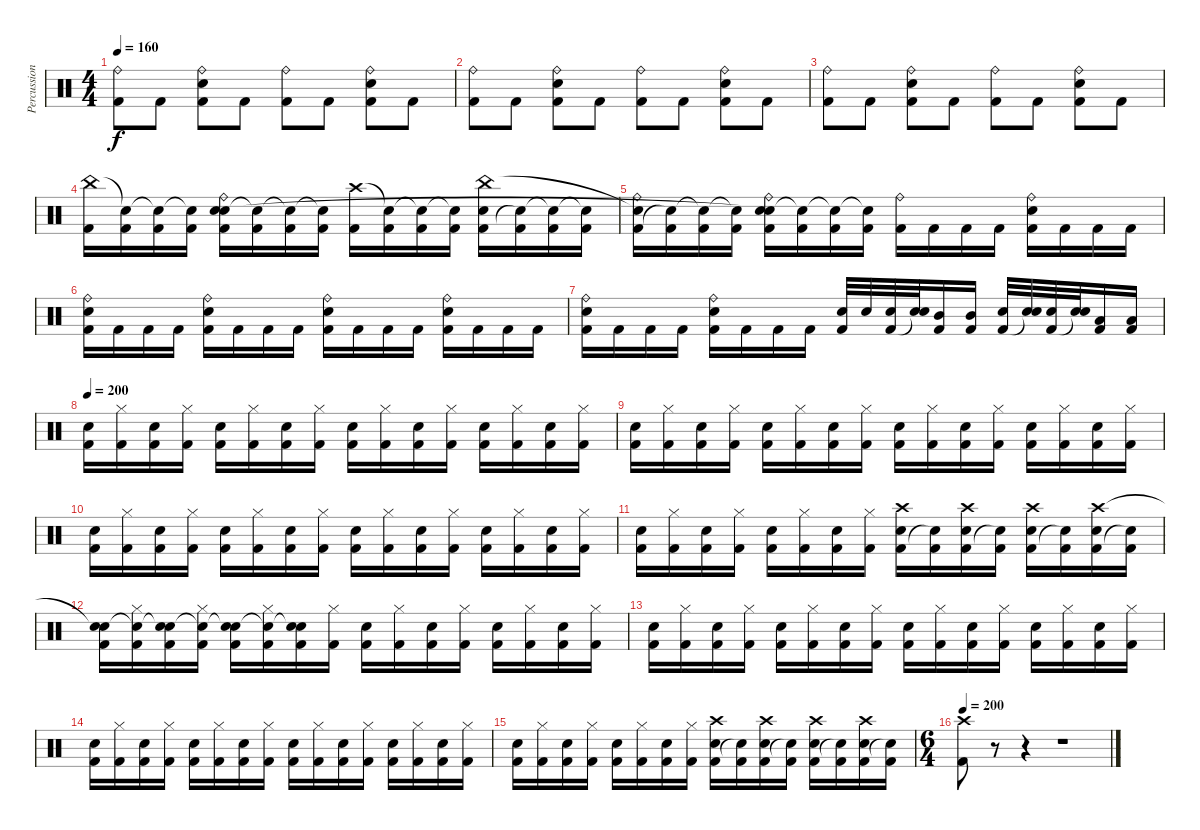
\track ("Percussion" "Percussion") {instrument percussion}
\staff {score}
\articulation defaults
\ts (4 4)
\tempo 160
\clef neutral
\ks c
("Ride (bell)" "Kick (hit) 2").8{dy f} "Kick (hit) 2".8 ("Ride (bell)" "Snare (hit) 2" "Kick (hit) 2").8 "Kick (hit) 2".8 ("Ride (bell)" "Kick (hit) 2").8 "Kick (hit) 2".8 ("Ride (bell)" "Snare (hit) 2" "Kick (hit) 2").8 "Kick (hit) 2".8 |
("Ride (bell)" "Kick (hit) 2").8 "Kick (hit) 2".8 ("Ride (bell)" "Snare (hit) 2" "Kick (hit) 2").8 "Kick (hit) 2".8 ("Ride (bell)" "Kick (hit) 2").8 "Kick (hit) 2".8 ("Ride (bell)" "Snare (hit) 2" "Kick (hit) 2").8 "Kick (hit) 2".8 |
("Ride (bell)" "Kick (hit) 2").8 "Kick (hit) 2".8 ("Ride (bell)" "Snare (hit) 2" "Kick (hit) 2").8 "Kick (hit) 2".8 ("Ride (bell)" "Kick (hit) 2").8 "Kick (hit) 2".8 ("Ride (bell)" "Snare (hit) 2" "Kick (hit) 2").8 "Kick (hit) 2".8 |
("Kick (hit) 2" "China (hit)").16 ("Kick (hit) 2" "Snare (hit)"{t}).16 ("Kick (hit) 2" "Snare (hit)"{t}).16 ("Kick (hit) 2" "Snare (hit)"{t}).16 ("Ride (bell)" "Snare (hit) 2" "Kick (hit) 2" "Snare (hit)").16 ("Kick (hit) 2" "Snare (hit)"{t}).16 ("Kick (hit) 2" "Snare (hit)"{t}).16 ("Kick (hit) 2" "Snare (hit)"{t}).16 ("Kick (hit) 2" "Crash high (hit)").16 ("Kick (hit) 2" "Snare (hit)"{t}).16 ("Kick (hit) 2" "Snare (hit)"{t}).16 ("Kick (hit) 2" "Snare (hit)"{t}).16 ("Snare (hit) 2" "Kick (hit) 2" "China (hit)").16 ("Kick (hit) 2" "Snare (hit)"{t}).16 ("Kick (hit) 2" "Snare (hit)"{t}).16 ("Kick (hit) 2" "Snare (hit)"{t}).16 |
("Ride (bell)" "Kick (hit) 2" "Snare (hit)"{t}).16 ("Kick (hit) 2" "Snare (hit)"{t}).16 ("Kick (hit) 2" "Snare (hit)"{t}).16 ("Kick (hit) 2" "Snare (hit)"{t}).16 ("Ride (bell)" "Snare (hit) 2" "Kick (hit) 2" "Snare (hit)"{t}).16 ("Kick (hit) 2" "Snare (hit)"{t}).16 ("Kick (hit) 2" "Snare (hit)"{t}).16 ("Kick (hit) 2" "Snare (hit)"{t}).16 ("Ride (bell)" "Kick (hit) 2").16 "Kick (hit) 2".16 "Kick (hit) 2".16 "Kick (hit) 2".16 ("Ride (bell)" "Snare (hit) 2" "Kick (hit) 2").16 "Kick (hit) 2".16 "Kick (hit) 2".16 "Kick (hit) 2".16 |
("Ride (bell)" "Snare (hit) 2" "Kick (hit) 2").16 "Kick (hit) 2".16 "Kick (hit) 2".16 "Kick (hit) 2".16 ("Ride (bell)" "Snare (hit) 2" "Kick (hit) 2").16 "Kick (hit) 2".16 "Kick (hit) 2".16 "Kick (hit) 2".16 ("Ride (bell)" "Snare (hit) 2" "Kick (hit) 2").16 "Kick (hit) 2".16 "Kick (hit) 2".16 "Kick (hit) 2".16 ("Ride (bell)" "Snare (hit) 2" "Kick (hit) 2").16 "Kick (hit) 2".16 "Kick (hit) 2".16 "Kick (hit) 2".16 |
("Ride (bell)" "Snare (hit) 2" "Kick (hit) 2").16 "Kick (hit) 2".16 "Kick (hit) 2".16 "Kick (hit) 2".16 ("Ride (bell)" "Snare (hit) 2" "Kick (hit) 2").16 "Kick (hit) 2".16 "Kick (hit) 2".16 "Kick (hit) 2".16 ("Snare (hit) 2" "Kick (hit) 2").32 "Snare (hit) 2".32 ("Snare (hit) 2" "Kick (hit) 2").32 ("Snare (hit) 2" "Snare (hit)"{t}).32 ("Mid Tom (hit)" "Kick (hit) 2").16 ("Mid Tom (hit)" "Kick (hit) 2").16 ("Snare (hit) 2" "Kick (hit) 2").32 ("Snare (hit) 2" "Snare (hit)"{t}).32 ("Snare (hit) 2" "Kick (hit) 2").32 ("Snare (hit) 2" "Snare (hit)"{t}).32 ("Low Tom (hit)" "Kick (hit) 2").16 ("Low Tom (hit)" "Kick (hit) 2").16 |
\tempo 200
("Snare (hit) 2" "Kick (hit) 2").16 ("Hi-Hat (closed)" "Kick (hit) 2").16 ("Snare (hit) 2" "Kick (hit) 2").16 ("Hi-Hat (closed)" "Kick (hit) 2").16 ("Snare (hit) 2" "Kick (hit) 2").16 ("Hi-Hat (closed)" "Kick (hit) 2").16 ("Snare (hit) 2" "Kick (hit) 2").16 ("Hi-Hat (closed)" "Kick (hit) 2").16 ("Snare (hit) 2" "Kick (hit) 2").16 ("Hi-Hat (closed)" "Kick (hit) 2").16 ("Snare (hit) 2" "Kick (hit) 2").16 ("Hi-Hat (closed)" "Kick (hit) 2").16 ("Snare (hit) 2" "Kick (hit) 2").16 ("Hi-Hat (closed)" "Kick (hit) 2").16 ("Snare (hit) 2" "Kick (hit) 2").16 ("Hi-Hat (closed)" "Kick (hit) 2").16 |
("Snare (hit) 2" "Kick (hit) 2").16 ("Hi-Hat (closed)" "Kick (hit) 2").16 ("Snare (hit) 2" "Kick (hit) 2").16 ("Hi-Hat (closed)" "Kick (hit) 2").16 ("Snare (hit) 2" "Kick (hit) 2").16 ("Hi-Hat (closed)" "Kick (hit) 2").16 ("Snare (hit) 2" "Kick (hit) 2").16 ("Hi-Hat (closed)" "Kick (hit) 2").16 ("Snare (hit) 2" "Kick (hit) 2").16 ("Hi-Hat (closed)" "Kick (hit) 2").16 ("Snare (hit) 2" "Kick (hit) 2").16 ("Hi-Hat (closed)" "Kick (hit) 2").16 ("Snare (hit) 2" "Kick (hit) 2").16 ("Hi-Hat (closed)" "Kick (hit) 2").16 ("Snare (hit) 2" "Kick (hit) 2").16 ("Hi-Hat (closed)" "Kick (hit) 2").16 |
("Snare (hit) 2" "Kick (hit) 2").16 ("Hi-Hat (closed)" "Kick (hit) 2").16 ("Snare (hit) 2" "Kick (hit) 2").16 ("Hi-Hat (closed)" "Kick (hit) 2").16 ("Snare (hit) 2" "Kick (hit) 2").16 ("Hi-Hat (closed)" "Kick (hit) 2").16 ("Snare (hit) 2" "Kick (hit) 2").16 ("Hi-Hat (closed)" "Kick (hit) 2").16 ("Snare (hit) 2" "Kick (hit) 2").16 ("Hi-Hat (closed)" "Kick (hit) 2").16 ("Snare (hit) 2" "Kick (hit) 2").16 ("Hi-Hat (closed)" "Kick (hit) 2").16 ("Snare (hit) 2" "Kick (hit) 2").16 ("Hi-Hat (closed)" "Kick (hit) 2").16 ("Snare (hit) 2" "Kick (hit) 2").16 ("Hi-Hat (closed)" "Kick (hit) 2").16 |
("Snare (hit) 2" "Kick (hit) 2").16 ("Hi-Hat (closed)" "Kick (hit) 2").16 ("Snare (hit) 2" "Kick (hit) 2").16 ("Hi-Hat (closed)" "Kick (hit) 2").16 ("Snare (hit) 2" "Kick (hit) 2").16 ("Hi-Hat (closed)" "Kick (hit) 2").16 ("Snare (hit) 2" "Kick (hit) 2").16 ("Hi-Hat (closed)" "Kick (hit) 2").16 ("Snare (hit) 2" "Kick (hit) 2" "Crash high (hit)").16 ("Kick (hit) 2" "Snare (hit)"{t}).16 ("Snare (hit) 2" "Kick (hit) 2" "Crash high (hit)").16 ("Kick (hit) 2" "Snare (hit)"{t}).16 ("Snare (hit) 2" "Kick (hit) 2" "Crash high (hit)").16 ("Kick (hit) 2" "Snare (hit)"{t}).16 ("Snare (hit) 2" "Kick (hit) 2" "Crash high (hit)").16 ("Kick (hit) 2" "Snare (hit)"{t}).16 |
("Snare (hit) 2" "Kick (hit) 2" "Snare (hit)"{t}).16 ("Hi-Hat (closed)" "Kick (hit) 2" "Snare (hit)"{t}).16 ("Snare (hit) 2" "Kick (hit) 2" "Snare (hit)"{t}).16 ("Hi-Hat (closed)" "Kick (hit) 2" "Snare (hit)"{t}).16 ("Snare (hit) 2" "Kick (hit) 2" "Snare (hit)"{t}).16 ("Hi-Hat (closed)" "Kick (hit) 2" "Snare (hit)"{t}).16 ("Snare (hit) 2" "Kick (hit) 2" "Snare (hit)"{t}).16 ("Hi-Hat (closed)" "Kick (hit) 2").16 ("Snare (hit) 2" "Kick (hit) 2").16 ("Hi-Hat (closed)" "Kick (hit) 2").16 ("Snare (hit) 2" "Kick (hit) 2").16 ("Hi-Hat (closed)" "Kick (hit) 2").16 ("Snare (hit) 2" "Kick (hit) 2").16 ("Hi-Hat (closed)" "Kick (hit) 2").16 ("Snare (hit) 2" "Kick (hit) 2").16 ("Hi-Hat (closed)" "Kick (hit) 2").16 |
("Snare (hit) 2" "Kick (hit) 2").16 ("Hi-Hat (closed)" "Kick (hit) 2").16 ("Snare (hit) 2" "Kick (hit) 2").16 ("Hi-Hat (closed)" "Kick (hit) 2").16 ("Snare (hit) 2" "Kick (hit) 2").16 ("Hi-Hat (closed)" "Kick (hit) 2").16 ("Snare (hit) 2" "Kick (hit) 2").16 ("Hi-Hat (closed)" "Kick (hit) 2").16 ("Snare (hit) 2" "Kick (hit) 2").16 ("Hi-Hat (closed)" "Kick (hit) 2").16 ("Snare (hit) 2" "Kick (hit) 2").16 ("Hi-Hat (closed)" "Kick (hit) 2").16 ("Snare (hit) 2" "Kick (hit) 2").16 ("Hi-Hat (closed)" "Kick (hit) 2").16 ("Snare (hit) 2" "Kick (hit) 2").16 ("Hi-Hat (closed)" "Kick (hit) 2").16 |
("Snare (hit) 2" "Kick (hit) 2").16 ("Hi-Hat (closed)" "Kick (hit) 2").16 ("Snare (hit) 2" "Kick (hit) 2").16 ("Hi-Hat (closed)" "Kick (hit) 2").16 ("Snare (hit) 2" "Kick (hit) 2").16 ("Hi-Hat (closed)" "Kick (hit) 2").16 ("Snare (hit) 2" "Kick (hit) 2").16 ("Hi-Hat (closed)" "Kick (hit) 2").16 ("Snare (hit) 2" "Kick (hit) 2").16 ("Hi-Hat (closed)" "Kick (hit) 2").16 ("Snare (hit) 2" "Kick (hit) 2").16 ("Hi-Hat (closed)" "Kick (hit) 2").16 ("Snare (hit) 2" "Kick (hit) 2").16 ("Hi-Hat (closed)" "Kick (hit) 2").16 ("Snare (hit) 2" "Kick (hit) 2").16 ("Hi-Hat (closed)" "Kick (hit) 2").16 |
("Snare (hit) 2" "Kick (hit) 2").16 ("Hi-Hat (closed)" "Kick (hit) 2").16 ("Snare (hit) 2" "Kick (hit) 2").16 ("Hi-Hat (closed)" "Kick (hit) 2").16 ("Snare (hit) 2" "Kick (hit) 2").16 ("Hi-Hat (closed)" "Kick (hit) 2").16 ("Snare (hit) 2" "Kick (hit) 2").16 ("Hi-Hat (closed)" "Kick (hit) 2").16 ("Snare (hit) 2" "Kick (hit) 2" "Crash high (hit)").16 ("Kick (hit) 2" "Snare (hit)"{t}).16 ("Snare (hit) 2" "Kick (hit) 2" "Crash high (hit)").16 ("Kick (hit) 2" "Snare (hit)"{t}).16 ("Snare (hit) 2" "Kick (hit) 2" "Crash high (hit)").16 ("Kick (hit) 2" "Snare (hit)"{t}).16 ("Snare (hit) 2" "Kick (hit) 2" "Crash high (hit)").16 ("Kick (hit) 2" "Snare (hit)"{t}).16 |
\ts (6 4)
\tempo 200
("Kick (hit) 2" "Crash high (hit)").8 r.8 r.4 r.1
